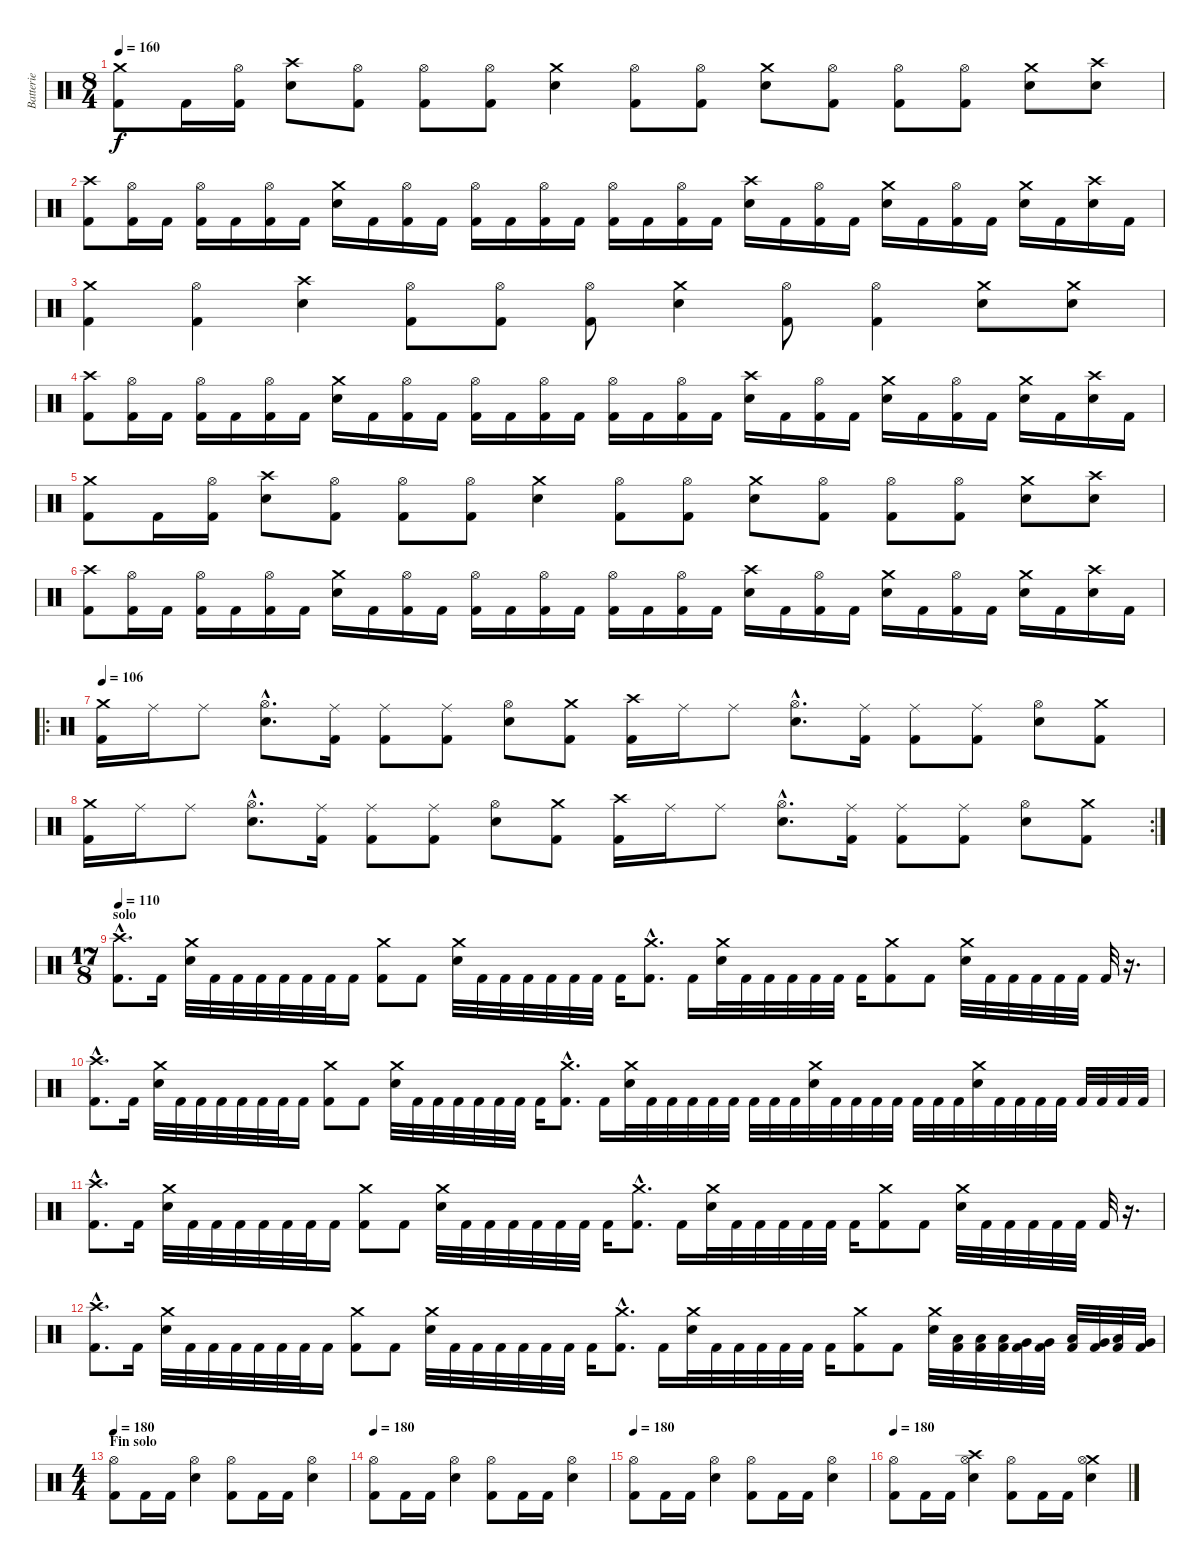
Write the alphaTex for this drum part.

\track ("Batterie" "Batterie") {instrument percussion}
\staff {score}
\articulation defaults
\ts (8 4)
\tempo 160
\clef neutral
\ks c
("Crash medium (hit)" "Kick (hit) 2").8{dy f} "Kick (hit) 2".16 ("Hi-Hat (open)" "Kick (hit) 2").16 ("Crash high (hit)" "Electric Snare (hit)").8 ("Hi-Hat (open)" "Kick (hit) 2").8 ("Hi-Hat (open)" "Kick (hit) 2").8 ("Hi-Hat (open)" "Kick (hit) 2").8 ("Crash medium (hit)" "Electric Snare (hit)").4 ("Hi-Hat (open)" "Kick (hit) 2").8 ("Hi-Hat (open)" "Kick (hit) 2").8 ("Crash medium (hit)" "Electric Snare (hit)").8 ("Hi-Hat (open)" "Kick (hit) 2").8 ("Hi-Hat (open)" "Kick (hit) 2").8 ("Hi-Hat (open)" "Kick (hit) 2").8 ("Crash medium (hit)" "Electric Snare (hit)").8 ("Crash high (hit)" "Electric Snare (hit)").8 |
("Crash high (hit)" "Kick (hit) 2").8 ("Hi-Hat (open)" "Kick (hit) 2").16 "Kick (hit) 2".16 ("Hi-Hat (open)" "Kick (hit) 2").16 "Kick (hit) 2".16 ("Hi-Hat (open)" "Kick (hit) 2").16 "Kick (hit) 2".16 ("Crash medium (hit)" "Electric Snare (hit)").16 "Kick (hit) 2".16 ("Hi-Hat (open)" "Kick (hit) 2").16 "Kick (hit) 2".16 ("Hi-Hat (open)" "Kick (hit) 2").16 "Kick (hit) 2".16 ("Hi-Hat (open)" "Kick (hit) 2").16 "Kick (hit) 2".16 ("Hi-Hat (open)" "Kick (hit) 2").16 "Kick (hit) 2".16 ("Hi-Hat (open)" "Kick (hit) 2").16 "Kick (hit) 2".16 ("Crash high (hit)" "Electric Snare (hit)").16 "Kick (hit) 2".16 ("Hi-Hat (open)" "Kick (hit) 2").16 "Kick (hit) 2".16 ("Crash medium (hit)" "Electric Snare (hit)").16 "Kick (hit) 2".16 ("Hi-Hat (open)" "Kick (hit) 2").16 "Kick (hit) 2".16 ("Crash medium (hit)" "Electric Snare (hit)").16 "Kick (hit) 2".16 ("Crash high (hit)" "Electric Snare (hit)").16 "Kick (hit) 2".16 |
("Crash medium (hit)" "Kick (hit) 2").4 ("Hi-Hat (open)" "Kick (hit) 2").4 ("Crash high (hit)" "Electric Snare (hit)").4 ("Hi-Hat (open)" "Kick (hit) 2").8 ("Hi-Hat (open)" "Kick (hit) 2").8 ("Hi-Hat (open)" "Kick (hit) 2").8 ("Crash medium (hit)" "Electric Snare (hit)").4 ("Hi-Hat (open)" "Kick (hit) 2").8 ("Hi-Hat (open)" "Kick (hit) 2").4 ("Crash medium (hit)" "Electric Snare (hit)").8 ("Crash medium (hit)" "Electric Snare (hit)").8 |
("Crash high (hit)" "Kick (hit) 2").8 ("Hi-Hat (open)" "Kick (hit) 2").16 "Kick (hit) 2".16 ("Hi-Hat (open)" "Kick (hit) 2").16 "Kick (hit) 2".16 ("Hi-Hat (open)" "Kick (hit) 2").16 "Kick (hit) 2".16 ("Crash medium (hit)" "Electric Snare (hit)").16 "Kick (hit) 2".16 ("Hi-Hat (open)" "Kick (hit) 2").16 "Kick (hit) 2".16 ("Hi-Hat (open)" "Kick (hit) 2").16 "Kick (hit) 2".16 ("Hi-Hat (open)" "Kick (hit) 2").16 "Kick (hit) 2".16 ("Hi-Hat (open)" "Kick (hit) 2").16 "Kick (hit) 2".16 ("Hi-Hat (open)" "Kick (hit) 2").16 "Kick (hit) 2".16 ("Crash high (hit)" "Electric Snare (hit)").16 "Kick (hit) 2".16 ("Hi-Hat (open)" "Kick (hit) 2").16 "Kick (hit) 2".16 ("Crash medium (hit)" "Electric Snare (hit)").16 "Kick (hit) 2".16 ("Hi-Hat (open)" "Kick (hit) 2").16 "Kick (hit) 2".16 ("Crash medium (hit)" "Electric Snare (hit)").16 "Kick (hit) 2".16 ("Crash high (hit)" "Electric Snare (hit)").16 "Kick (hit) 2".16 |
("Crash medium (hit)" "Kick (hit) 2").8 "Kick (hit) 2".16 ("Hi-Hat (open)" "Kick (hit) 2").16 ("Crash high (hit)" "Electric Snare (hit)").8 ("Hi-Hat (open)" "Kick (hit) 2").8 ("Hi-Hat (open)" "Kick (hit) 2").8 ("Hi-Hat (open)" "Kick (hit) 2").8 ("Crash medium (hit)" "Electric Snare (hit)").4 ("Hi-Hat (open)" "Kick (hit) 2").8 ("Hi-Hat (open)" "Kick (hit) 2").8 ("Crash medium (hit)" "Electric Snare (hit)").8 ("Hi-Hat (open)" "Kick (hit) 2").8 ("Hi-Hat (open)" "Kick (hit) 2").8 ("Hi-Hat (open)" "Kick (hit) 2").8 ("Crash medium (hit)" "Electric Snare (hit)").8 ("Crash high (hit)" "Electric Snare (hit)").8 |
("Crash high (hit)" "Kick (hit) 2").8 ("Hi-Hat (open)" "Kick (hit) 2").16 "Kick (hit) 2".16 ("Hi-Hat (open)" "Kick (hit) 2").16 "Kick (hit) 2".16 ("Hi-Hat (open)" "Kick (hit) 2").16 "Kick (hit) 2".16 ("Crash medium (hit)" "Electric Snare (hit)").16 "Kick (hit) 2".16 ("Hi-Hat (open)" "Kick (hit) 2").16 "Kick (hit) 2".16 ("Hi-Hat (open)" "Kick (hit) 2").16 "Kick (hit) 2".16 ("Hi-Hat (open)" "Kick (hit) 2").16 "Kick (hit) 2".16 ("Hi-Hat (open)" "Kick (hit) 2").16 "Kick (hit) 2".16 ("Hi-Hat (open)" "Kick (hit) 2").16 "Kick (hit) 2".16 ("Crash high (hit)" "Electric Snare (hit)").16 "Kick (hit) 2".16 ("Hi-Hat (open)" "Kick (hit) 2").16 "Kick (hit) 2".16 ("Crash medium (hit)" "Electric Snare (hit)").16 "Kick (hit) 2".16 ("Hi-Hat (open)" "Kick (hit) 2").16 "Kick (hit) 2".16 ("Crash medium (hit)" "Electric Snare (hit)").16 "Kick (hit) 2".16 ("Crash high (hit)" "Electric Snare (hit)").16 "Kick (hit) 2".16 |
\ro
\tempo 106
("Crash medium (hit)" "Kick (hit) 2").16 "Ride (middle)".16 "Ride (middle)".8 ("Hi-Hat (open)"{hac} "Electric Snare (hit)"{hac}).8{d} ("Ride (middle)" "Kick (hit) 2").16 ("Ride (middle)" "Kick (hit) 2").8 ("Ride (middle)" "Kick (hit) 2").8 ("Hi-Hat (open)" "Electric Snare (hit)").8 ("Crash medium (hit)" "Kick (hit) 2").8 ("Crash high (hit)" "Kick (hit) 2").16 "Ride (middle)".16 "Ride (middle)".8 ("Hi-Hat (open)"{hac} "Electric Snare (hit)"{hac}).8{d} ("Ride (middle)" "Kick (hit) 2").16 ("Ride (middle)" "Kick (hit) 2").8 ("Ride (middle)" "Kick (hit) 2").8 ("Hi-Hat (open)" "Electric Snare (hit)").8 ("Crash medium (hit)" "Kick (hit) 2").8 |
\rc 2
("Crash medium (hit)" "Kick (hit) 2").16 "Ride (middle)".16 "Ride (middle)".8 ("Hi-Hat (open)"{hac} "Electric Snare (hit)"{hac}).8{d} ("Ride (middle)" "Kick (hit) 2").16 ("Ride (middle)" "Kick (hit) 2").8 ("Ride (middle)" "Kick (hit) 2").8 ("Hi-Hat (open)" "Electric Snare (hit)").8 ("Crash medium (hit)" "Kick (hit) 2").8 ("Crash high (hit)" "Kick (hit) 2").16 "Ride (middle)".16 "Ride (middle)".8 ("Hi-Hat (open)"{hac} "Electric Snare (hit)"{hac}).8{d} ("Ride (middle)" "Kick (hit) 2").16 ("Ride (middle)" "Kick (hit) 2").8 ("Ride (middle)" "Kick (hit) 2").8 ("Hi-Hat (open)" "Electric Snare (hit)").8 ("Crash medium (hit)" "Kick (hit) 2").8 |
\ts (17 8)
\section ("" "solo")
\tempo 110
("Crash high (hit)"{hac} "Kick (hit) 2"{hac}).8{d} "Kick (hit) 2".16 ("Crash medium (hit)" "Electric Snare (hit)").32 "Kick (hit) 2".32 "Kick (hit) 2".32 "Kick (hit) 2".32 "Kick (hit) 2".32 "Kick (hit) 2".32 "Kick (hit) 2".32 "Kick (hit) 2".16 ("Crash medium (hit)" "Kick (hit) 2").8 "Kick (hit) 2".8 ("Crash medium (hit)" "Electric Snare (hit)").32 "Kick (hit) 2".32 "Kick (hit) 2".32 "Kick (hit) 2".32 "Kick (hit) 2".32 "Kick (hit) 2".32 "Kick (hit) 2".32 "Kick (hit) 2".16 ("Crash medium (hit)"{hac} "Kick (hit) 2"{hac}).8{d} "Kick (hit) 2".16 ("Crash medium (hit)" "Electric Snare (hit)").32 "Kick (hit) 2".32 "Kick (hit) 2".32 "Kick (hit) 2".32 "Kick (hit) 2".32 "Kick (hit) 2".32 "Kick (hit) 2".16 ("Crash medium (hit)" "Kick (hit) 2").8 "Kick (hit) 2".8 ("Crash medium (hit)" "Electric Snare (hit)").32 "Kick (hit) 2".32 "Kick (hit) 2".32 "Kick (hit) 2".32 "Kick (hit) 2".32 "Kick (hit) 2".32 "Kick (hit) 2".32 r.16{d} |
("Crash high (hit)"{hac} "Kick (hit) 2"{hac}).8{d} "Kick (hit) 2".16 ("Crash medium (hit)" "Electric Snare (hit)").32 "Kick (hit) 2".32 "Kick (hit) 2".32 "Kick (hit) 2".32 "Kick (hit) 2".32 "Kick (hit) 2".32 "Kick (hit) 2".32 "Kick (hit) 2".16 ("Crash medium (hit)" "Kick (hit) 2").8 "Kick (hit) 2".8 ("Crash medium (hit)" "Electric Snare (hit)").32 "Kick (hit) 2".32 "Kick (hit) 2".32 "Kick (hit) 2".32 "Kick (hit) 2".32 "Kick (hit) 2".32 "Kick (hit) 2".32 "Kick (hit) 2".16 ("Crash medium (hit)"{hac} "Kick (hit) 2"{hac}).8{d} "Kick (hit) 2".16 ("Crash medium (hit)" "Electric Snare (hit)").32 "Kick (hit) 2".32 "Kick (hit) 2".32 "Kick (hit) 2".32 "Kick (hit) 2".32 "Kick (hit) 2".32 "Kick (hit) 2".32 "Kick (hit) 2".32 "Kick (hit) 2".32 ("Crash medium (hit)" "Electric Snare (hit)").32 "Kick (hit) 2".32 "Kick (hit) 2".32 "Kick (hit) 2".32 "Kick (hit) 2".32 "Kick (hit) 2".32 "Kick (hit) 2".32 "Kick (hit) 2".32 ("Crash medium (hit)" "Electric Snare (hit)").32 "Kick (hit) 2".32 "Kick (hit) 2".32 "Kick (hit) 2".32 "Kick (hit) 2".32 "Kick (hit) 2".32 "Kick (hit) 2".32 "Kick (hit) 2".32 "Kick (hit) 2".32 |
("Crash high (hit)"{hac} "Kick (hit) 2"{hac}).8{d} "Kick (hit) 2".16 ("Crash medium (hit)" "Electric Snare (hit)").32 "Kick (hit) 2".32 "Kick (hit) 2".32 "Kick (hit) 2".32 "Kick (hit) 2".32 "Kick (hit) 2".32 "Kick (hit) 2".32 "Kick (hit) 2".16 ("Crash medium (hit)" "Kick (hit) 2").8 "Kick (hit) 2".8 ("Crash medium (hit)" "Electric Snare (hit)").32 "Kick (hit) 2".32 "Kick (hit) 2".32 "Kick (hit) 2".32 "Kick (hit) 2".32 "Kick (hit) 2".32 "Kick (hit) 2".32 "Kick (hit) 2".16 ("Crash medium (hit)"{hac} "Kick (hit) 2"{hac}).8{d} "Kick (hit) 2".16 ("Crash medium (hit)" "Electric Snare (hit)").32 "Kick (hit) 2".32 "Kick (hit) 2".32 "Kick (hit) 2".32 "Kick (hit) 2".32 "Kick (hit) 2".32 "Kick (hit) 2".16 ("Crash medium (hit)" "Kick (hit) 2").8 "Kick (hit) 2".8 ("Crash medium (hit)" "Electric Snare (hit)").32 "Kick (hit) 2".32 "Kick (hit) 2".32 "Kick (hit) 2".32 "Kick (hit) 2".32 "Kick (hit) 2".32 "Kick (hit) 2".32 r.16{d} |
("Crash high (hit)"{hac} "Kick (hit) 2"{hac}).8{d} "Kick (hit) 2".16 ("Crash medium (hit)" "Electric Snare (hit)").32 "Kick (hit) 2".32 "Kick (hit) 2".32 "Kick (hit) 2".32 "Kick (hit) 2".32 "Kick (hit) 2".32 "Kick (hit) 2".32 "Kick (hit) 2".16 ("Crash medium (hit)" "Kick (hit) 2").8 "Kick (hit) 2".8 ("Crash medium (hit)" "Electric Snare (hit)").32 "Kick (hit) 2".32 "Kick (hit) 2".32 "Kick (hit) 2".32 "Kick (hit) 2".32 "Kick (hit) 2".32 "Kick (hit) 2".32 "Kick (hit) 2".16 ("Crash medium (hit)"{hac} "Kick (hit) 2"{hac}).8{d} "Kick (hit) 2".16 ("Crash medium (hit)" "Electric Snare (hit)").32 "Kick (hit) 2".32 "Kick (hit) 2".32 "Kick (hit) 2".32 "Kick (hit) 2".32 "Kick (hit) 2".32 "Kick (hit) 2".16 ("Crash medium (hit)" "Kick (hit) 2").8 "Kick (hit) 2".8 ("Crash medium (hit)" "Electric Snare (hit)").32 ("Low Tom (hit)" "Kick (hit) 2").32 ("Low Tom (hit)" "Kick (hit) 2").32 ("Low Tom (hit)" "Kick (hit) 2").32 ("Very Low Tom (hit)" "Kick (hit) 2").32 ("Very Low Tom (hit)" "Kick (hit) 2").32 ("Low Tom (hit)" "Kick (hit) 2").32 ("Very Low Tom (hit)" "Kick (hit) 2").32 ("Low Floor Tom (hit)" "Kick (hit) 2").32 ("Very Low Tom (hit)" "Kick (hit) 2").32 |
\ts (4 4)
\section ("" "Fin solo")
\tempo 190
\tempo 180
("Hi-Hat (open)" "Kick (hit) 2").8 "Kick (hit) 2".16 "Kick (hit) 2".16 ("Hi-Hat (open)" "Electric Snare (hit)").4 ("Hi-Hat (open)" "Kick (hit) 2").8 "Kick (hit) 2".16 "Kick (hit) 2".16 ("Hi-Hat (open)" "Electric Snare (hit)").4 |
\tempo 180
("Hi-Hat (open)" "Kick (hit) 2").8 "Kick (hit) 2".16 "Kick (hit) 2".16 ("Hi-Hat (open)" "Electric Snare (hit)").4 ("Hi-Hat (open)" "Kick (hit) 2").8 "Kick (hit) 2".16 "Kick (hit) 2".16 ("Hi-Hat (open)" "Electric Snare (hit)").4 |
\tempo 180
("Hi-Hat (open)" "Kick (hit) 2").8 "Kick (hit) 2".16 "Kick (hit) 2".16 ("Hi-Hat (open)" "Electric Snare (hit)").4 ("Hi-Hat (open)" "Kick (hit) 2").8 "Kick (hit) 2".16 "Kick (hit) 2".16 ("Hi-Hat (open)" "Electric Snare (hit)").4 |
\tempo 180
("Hi-Hat (open)" "Kick (hit) 2").8 "Kick (hit) 2".16 "Kick (hit) 2".16 ("Crash high (hit)" "Hi-Hat (open)" "Electric Snare (hit)").4 ("Hi-Hat (open)" "Kick (hit) 2").8 "Kick (hit) 2".16 "Kick (hit) 2".16 ("Crash medium (hit)" "Hi-Hat (open)" "Electric Snare (hit)").4
